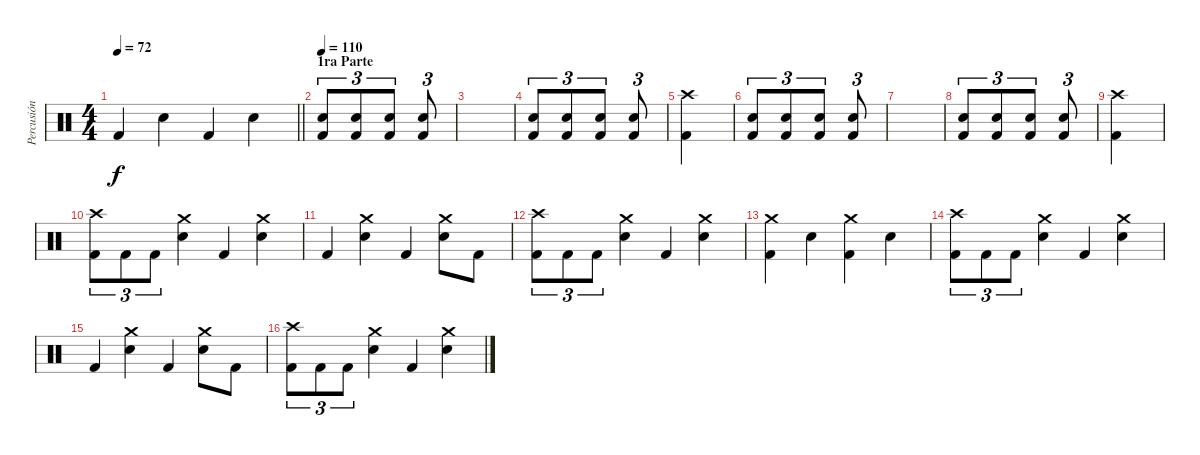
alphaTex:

\track ("Percusión" "Percusión") {instrument percussion}
\staff {score}
\articulation defaults
\ts (4 4)
\tempo 72
\clef neutral
\barLineRight lightlight
\ks c "Kick (hit) 2".4{dy f} "Electric Snare (hit)".4 "Kick (hit) 2".4 "Electric Snare (hit)".4
|
\section ("" "1ra Parte")
\tempo 110
("Kick (hit) 2" "Electric Snare (hit)").8{tu (3 2)} ("Kick (hit) 2" "Electric Snare (hit)").8{tu (3 2)} ("Kick (hit) 2" "Electric Snare (hit)").8{tu (3 2)} ("Kick (hit) 2" "Electric Snare (hit)").8{tu (3 2)} |
|
("Kick (hit) 2" "Electric Snare (hit)").8{tu (3 2)} ("Kick (hit) 2" "Electric Snare (hit)").8{tu (3 2)} ("Kick (hit) 2" "Electric Snare (hit)").8{tu (3 2)} ("Kick (hit) 2" "Electric Snare (hit)").8{tu (3 2)} |
("Crash high (hit)" "Kick (hit) 2").4 |
("Kick (hit) 2" "Electric Snare (hit)").8{tu (3 2)} ("Kick (hit) 2" "Electric Snare (hit)").8{tu (3 2)} ("Kick (hit) 2" "Electric Snare (hit)").8{tu (3 2)} ("Kick (hit) 2" "Electric Snare (hit)").8{tu (3 2)} |
|
("Kick (hit) 2" "Electric Snare (hit)").8{tu (3 2)} ("Kick (hit) 2" "Electric Snare (hit)").8{tu (3 2)} ("Kick (hit) 2" "Electric Snare (hit)").8{tu (3 2)} ("Kick (hit) 2" "Electric Snare (hit)").8{tu (3 2)} |
("Crash high (hit)" "Kick (hit) 2").4 |
("Crash high (hit)" "Kick (hit) 2").8{tu (3 2)} "Kick (hit) 2".8{tu (3 2)} "Kick (hit) 2".8{tu (3 2)} ("Crash medium (hit)" "Electric Snare (hit)").4 "Kick (hit) 2".4 ("Crash medium (hit)" "Electric Snare (hit)").4 |
"Kick (hit) 2".4 ("Crash medium (hit)" "Electric Snare (hit)").4 "Kick (hit) 2".4 ("Crash medium (hit)" "Electric Snare (hit)").8 "Kick (hit) 2".8 |
("Crash high (hit)" "Kick (hit) 2").8{tu (3 2)} "Kick (hit) 2".8{tu (3 2)} "Kick (hit) 2".8{tu (3 2)} ("Crash medium (hit)" "Electric Snare (hit)").4 "Kick (hit) 2".4 ("Crash medium (hit)" "Electric Snare (hit)").4 |
("Crash medium (hit)" "Kick (hit) 2").4 "Electric Snare (hit)".4 ("Crash medium (hit)" "Kick (hit) 2").4 "Electric Snare (hit)".4 |
("Crash high (hit)" "Kick (hit) 2").8{tu (3 2)} "Kick (hit) 2".8{tu (3 2)} "Kick (hit) 2".8{tu (3 2)} ("Crash medium (hit)" "Electric Snare (hit)").4 "Kick (hit) 2".4 ("Crash medium (hit)" "Electric Snare (hit)").4 |
"Kick (hit) 2".4 ("Crash medium (hit)" "Electric Snare (hit)").4 "Kick (hit) 2".4 ("Crash medium (hit)" "Electric Snare (hit)").8 "Kick (hit) 2".8 |
("Crash high (hit)" "Kick (hit) 2").8{tu (3 2)} "Kick (hit) 2".8{tu (3 2)} "Kick (hit) 2".8{tu (3 2)} ("Crash medium (hit)" "Electric Snare (hit)").4 "Kick (hit) 2".4 ("Crash medium (hit)" "Electric Snare (hit)").4
